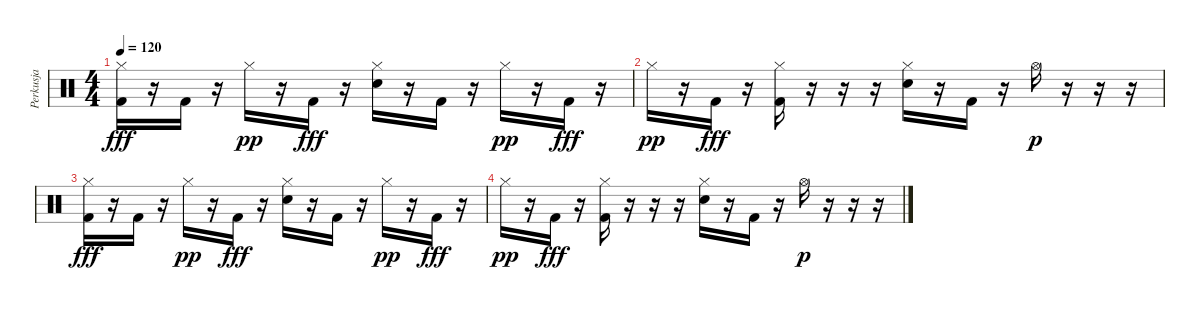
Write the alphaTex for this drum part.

\track ("Perkusja" "Perkusja") {instrument percussion}
\staff {score}
\articulation defaults
\ts (4 4)
\tempo 120
\clef neutral
\ks c
("Hi-Hat (closed)" "Kick (hit) 2").16{dy fff} r.16 "Kick (hit) 2".16 r.16 "Hi-Hat (closed)".16{dy pp} r.16 "Kick (hit) 2".16{dy fff} r.16 ("Hi-Hat (closed)" "Electric Snare (hit)").16 r.16 "Kick (hit) 2".16 r.16 "Hi-Hat (closed)".16{dy pp} r.16 "Kick (hit) 2".16{dy fff} r.16 |
"Hi-Hat (closed)".16{dy pp} r.16 "Kick (hit) 2".16{dy fff} r.16 ("Hi-Hat (closed)" "Kick (hit) 2").16 r.16 r.16 r.16 ("Hi-Hat (closed)" "Electric Snare (hit)").16 r.16 "Kick (hit) 2".16 r.16 "Hi-Hat (open)".16{dy p} r.16 r.16 r.16 |
("Hi-Hat (closed)" "Kick (hit) 2").16{dy fff} r.16 "Kick (hit) 2".16 r.16 "Hi-Hat (closed)".16{dy pp} r.16 "Kick (hit) 2".16{dy fff} r.16 ("Hi-Hat (closed)" "Electric Snare (hit)").16 r.16 "Kick (hit) 2".16 r.16 "Hi-Hat (closed)".16{dy pp} r.16 "Kick (hit) 2".16{dy fff} r.16 |
"Hi-Hat (closed)".16{dy pp} r.16 "Kick (hit) 2".16{dy fff} r.16 ("Hi-Hat (closed)" "Kick (hit) 2").16 r.16 r.16 r.16 ("Hi-Hat (closed)" "Electric Snare (hit)").16 r.16 "Kick (hit) 2".16 r.16 "Hi-Hat (open)".16{dy p} r.16 r.16 r.16
